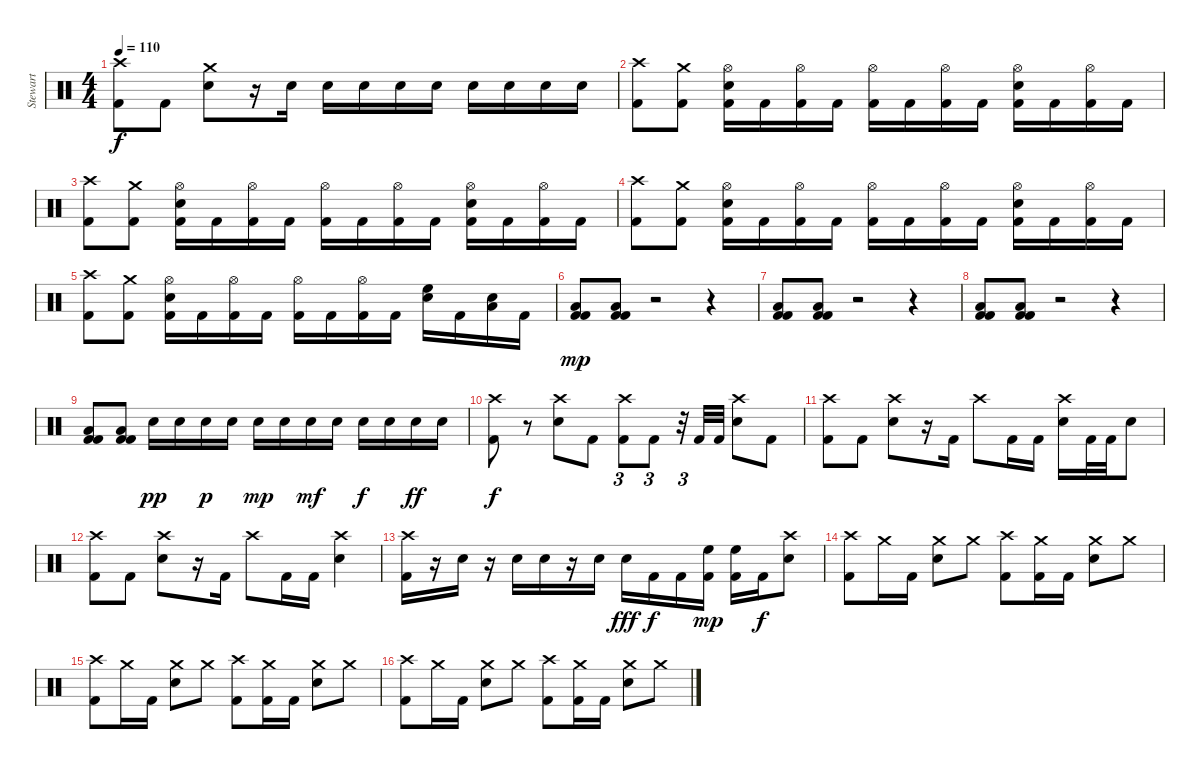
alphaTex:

\track ("Stewart" "Stewart") {instrument percussion}
\staff {score}
\articulation defaults
\ts (4 4)
\tempo 110
\clef neutral
\ks c
("Kick (hit) 2" "Crash high (hit)").8{dy f} "Kick (hit) 2".8 ("Snare (hit) 2" "Crash medium (hit)").8 r.16 "Snare (hit) 2".16 "Snare (hit) 2".16 "Snare (hit) 2".16 "Snare (hit) 2".16 "Snare (hit) 2".16 "Snare (hit) 2".16 "Snare (hit) 2".16 "Snare (hit) 2".16 "Snare (hit) 2".16 |
("Kick (hit) 2" "Crash high (hit)").8 ("Kick (hit) 2" "Crash medium (hit)").8 ("Kick (hit) 2" "Snare (hit) 2" "Hi-Hat (open)").16 "Kick (hit) 2".16 ("Kick (hit) 2" "Hi-Hat (open)").16 "Kick (hit) 2".16 ("Kick (hit) 2" "Hi-Hat (open)").16 "Kick (hit) 2".16 ("Kick (hit) 2" "Hi-Hat (open)").16 "Kick (hit) 2".16 ("Kick (hit) 2" "Snare (hit) 2" "Hi-Hat (open)").16 "Kick (hit) 2".16 ("Kick (hit) 2" "Hi-Hat (open)").16 "Kick (hit) 2".16 |
("Kick (hit) 2" "Crash high (hit)").8 ("Kick (hit) 2" "Crash medium (hit)").8 ("Kick (hit) 2" "Snare (hit) 2" "Hi-Hat (open)").16 "Kick (hit) 2".16 ("Kick (hit) 2" "Hi-Hat (open)").16 "Kick (hit) 2".16 ("Kick (hit) 2" "Hi-Hat (open)").16 "Kick (hit) 2".16 ("Kick (hit) 2" "Hi-Hat (open)").16 "Kick (hit) 2".16 ("Kick (hit) 2" "Snare (hit) 2" "Hi-Hat (open)").16 "Kick (hit) 2".16 ("Kick (hit) 2" "Hi-Hat (open)").16 "Kick (hit) 2".16 |
("Kick (hit) 2" "Crash high (hit)").8 ("Kick (hit) 2" "Crash medium (hit)").8 ("Kick (hit) 2" "Snare (hit) 2" "Hi-Hat (open)").16 "Kick (hit) 2".16 ("Kick (hit) 2" "Hi-Hat (open)").16 "Kick (hit) 2".16 ("Kick (hit) 2" "Hi-Hat (open)").16 "Kick (hit) 2".16 ("Kick (hit) 2" "Hi-Hat (open)").16 "Kick (hit) 2".16 ("Kick (hit) 2" "Snare (hit) 2" "Hi-Hat (open)").16 "Kick (hit) 2".16 ("Kick (hit) 2" "Hi-Hat (open)").16 "Kick (hit) 2".16 |
("Kick (hit) 2" "Crash high (hit)").8 ("Kick (hit) 2" "Crash medium (hit)").8 ("Kick (hit) 2" "Snare (hit) 2" "Hi-Hat (open)").16 "Kick (hit) 2".16 ("Kick (hit) 2" "Hi-Hat (open)").16 "Kick (hit) 2".16 ("Kick (hit) 2" "Hi-Hat (open)").16 "Kick (hit) 2".16 ("Kick (hit) 2" "Hi-Hat (open)").16 "Kick (hit) 2".16 ("High Floor Tom (hit)" "Snare (hit) 2").16 "Kick (hit) 2".16 ("Low Tom (hit)" "Snare (hit) 2").16 "Kick (hit) 2".16 |
("Kick (hit) 2" "Low Tom (hit)" "Kick (hit) 2").8{dy mp} ("Kick (hit) 2" "Low Floor Tom (hit)" "Kick (hit) 2").8 r.2 r.4 |
("Kick (hit) 2" "Low Tom (hit)" "Kick (hit) 2").8 ("Kick (hit) 2" "Low Floor Tom (hit)" "Kick (hit) 2").8 r.2 r.4 |
("Kick (hit) 2" "Low Tom (hit)" "Kick (hit) 2").8 ("Kick (hit) 2" "Low Floor Tom (hit)" "Kick (hit) 2").8 r.2 r.4 |
("Kick (hit) 2" "Low Tom (hit)" "Kick (hit) 2").8 ("Kick (hit) 2" "Low Floor Tom (hit)" "Kick (hit) 2").8 "Snare (hit) 2".16{dy pp} "Snare (hit) 2".16 "Snare (hit) 2".16{dy p} "Snare (hit) 2".16 "Snare (hit) 2".16{dy mp} "Snare (hit) 2".16 "Snare (hit) 2".16{dy mf} "Snare (hit) 2".16 "Snare (hit) 2".16{dy f} "Snare (hit) 2".16 "Snare (hit) 2".16{dy ff} "Snare (hit) 2".16 |
("Crash high (hit)" "Kick (hit) 2").8{dy f} r.8 ("Crash high (hit)" "Snare (hit) 2").8 "Kick (hit) 2".8 ("Crash high (hit)" "Kick (hit) 2").8{tu (3 2)} "Kick (hit) 2".8{tu (3 2)} r.32{tu (3 2)} "Kick (hit) 2".32 "Kick (hit) 2".32 ("Crash high (hit)" "Snare (hit) 2").8 "Kick (hit) 2".8 |
("Crash high (hit)" "Kick (hit) 2").8 "Kick (hit) 2".8 ("Crash high (hit)" "Snare (hit) 2").8 r.16 "Kick (hit) 2".16 "Crash high (hit)".8 "Kick (hit) 2".16 "Kick (hit) 2".16 ("Crash high (hit)" "Snare (hit) 2").16 "Kick (hit) 2".32 "Kick (hit) 2".32 "Snare (hit) 2".8 |
("Crash high (hit)" "Kick (hit) 2").8 "Kick (hit) 2".8 ("Crash high (hit)" "Snare (hit) 2").8 r.16 "Kick (hit) 2".16 "Crash high (hit)".8 "Kick (hit) 2".16 "Kick (hit) 2".16 ("Crash high (hit)" "Snare (hit) 2").4 |
("Crash high (hit)" "Kick (hit) 2").16 r.16 "Snare (hit) 2".16 r.16 "Snare (hit) 2".16 "Snare (hit) 2".16 r.16 "Snare (hit) 2".16 "Snare (hit) 2".16{dy fff} "Kick (hit) 2".16{dy f} "Kick (hit) 2".16 ("High Floor Tom (hit)" "Kick (hit) 2").16{dy mp} ("High Floor Tom (hit)" "Kick (hit) 2").16 "Kick (hit) 2".16{dy f} ("Crash high (hit)" "Snare (hit) 2").8 |
("Crash high (hit)" "Kick (hit) 2").8 "Crash medium (hit)".16 "Kick (hit) 2".16 ("Crash medium (hit)" "Electric Snare (hit)").8 "Crash medium (hit)".8 ("Crash high (hit)" "Kick (hit) 2").8 ("Crash medium (hit)" "Kick (hit) 2").16 "Kick (hit) 2".16 ("Crash medium (hit)" "Electric Snare (hit)").8 "Crash medium (hit)".8 |
("Crash high (hit)" "Kick (hit) 2").8 "Crash medium (hit)".16 "Kick (hit) 2".16 ("Crash medium (hit)" "Electric Snare (hit)").8 "Crash medium (hit)".8 ("Crash high (hit)" "Kick (hit) 2").8 ("Crash medium (hit)" "Kick (hit) 2").16 "Kick (hit) 2".16 ("Crash medium (hit)" "Electric Snare (hit)").8 "Crash medium (hit)".8 |
("Crash high (hit)" "Kick (hit) 2").8 "Crash medium (hit)".16 "Kick (hit) 2".16 ("Crash medium (hit)" "Electric Snare (hit)").8 "Crash medium (hit)".8 ("Crash high (hit)" "Kick (hit) 2").8 ("Crash medium (hit)" "Kick (hit) 2").16 "Kick (hit) 2".16 ("Crash medium (hit)" "Electric Snare (hit)").8 "Crash medium (hit)".8
